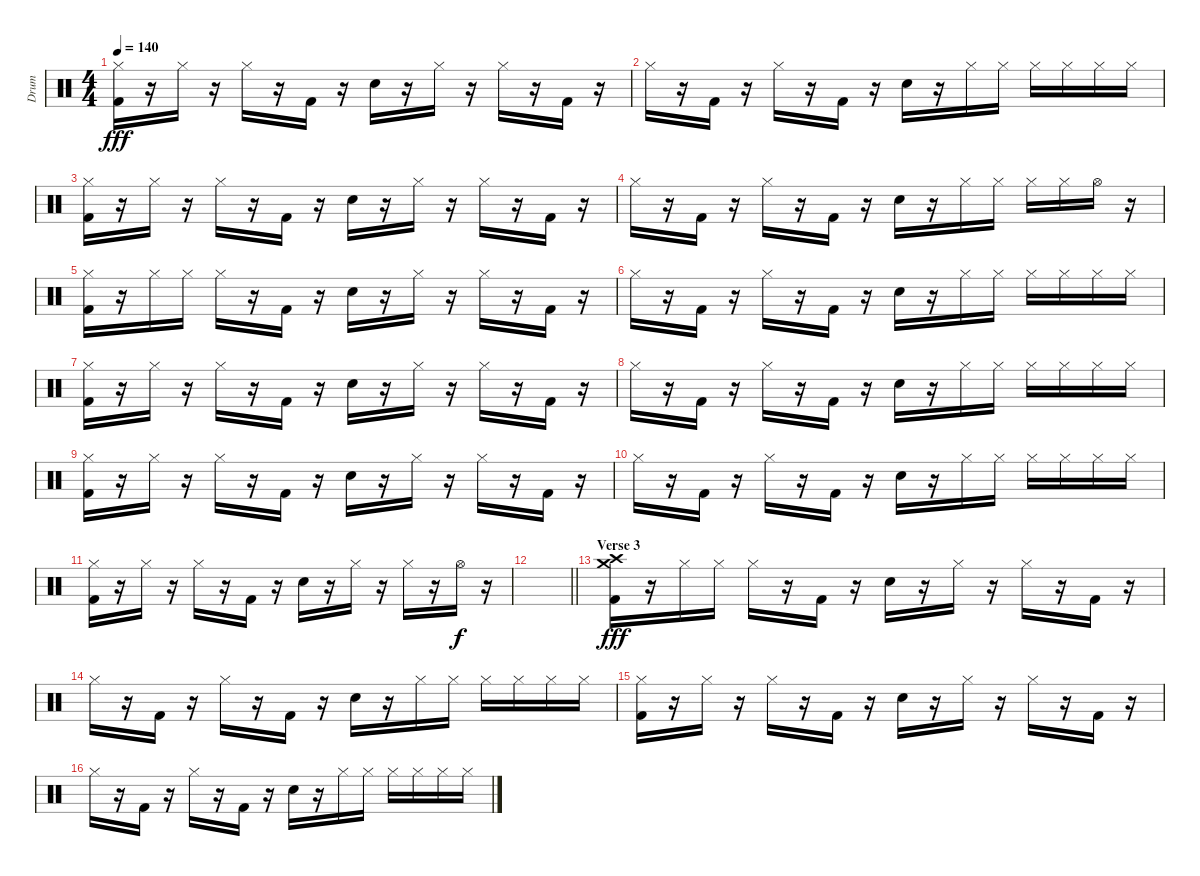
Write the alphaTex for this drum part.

\track ("Drum" "Drum") {instrument percussion}
\staff {score}
\articulation defaults
\ts (4 4)
\tempo 140
\clef neutral
\ks c
("Hi-Hat (closed)" "Kick (hit) 2").16{dy fff} r.16 "Hi-Hat (closed)".16 r.16 "Hi-Hat (closed)".16 r.16 "Kick (hit) 2".16 r.16 "Electric Snare (hit)".16 r.16 "Hi-Hat (closed)".16 r.16 "Hi-Hat (closed)".16 r.16 "Kick (hit) 2".16 r.16 |
"Hi-Hat (closed)".16 r.16 "Kick (hit) 2".16 r.16 "Hi-Hat (closed)".16 r.16 "Kick (hit) 2".16 r.16 "Electric Snare (hit)".16 r.16 "Hi-Hat (closed)".16 "Hi-Hat (closed)".16 "Hi-Hat (closed)".16 "Hi-Hat (closed)".16 "Hi-Hat (closed)".16 "Hi-Hat (closed)".16 |
("Hi-Hat (closed)" "Kick (hit) 2").16 r.16 "Hi-Hat (closed)".16 r.16 "Hi-Hat (closed)".16 r.16 "Kick (hit) 2".16 r.16 "Electric Snare (hit)".16 r.16 "Hi-Hat (closed)".16 r.16 "Hi-Hat (closed)".16 r.16 "Kick (hit) 2".16 r.16 |
"Hi-Hat (closed)".16 r.16 "Kick (hit) 2".16 r.16 "Hi-Hat (closed)".16 r.16 "Kick (hit) 2".16 r.16 "Electric Snare (hit)".16 r.16 "Hi-Hat (closed)".16 "Hi-Hat (closed)".16 "Hi-Hat (closed)".16 "Hi-Hat (closed)".16 "Hi-Hat (open)".16 r.16 |
("Hi-Hat (closed)" "Kick (hit) 2").16 r.16 "Hi-Hat (closed)".16 "Hi-Hat (closed)".16 "Hi-Hat (closed)".16 r.16 "Kick (hit) 2".16 r.16 "Electric Snare (hit)".16 r.16 "Hi-Hat (closed)".16 r.16 "Hi-Hat (closed)".16 r.16 "Kick (hit) 2".16 r.16 |
"Hi-Hat (closed)".16 r.16 "Kick (hit) 2".16 r.16 "Hi-Hat (closed)".16 r.16 "Kick (hit) 2".16 r.16 "Electric Snare (hit)".16 r.16 "Hi-Hat (closed)".16 "Hi-Hat (closed)".16 "Hi-Hat (closed)".16 "Hi-Hat (closed)".16 "Hi-Hat (closed)".16 "Hi-Hat (closed)".16 |
("Hi-Hat (closed)" "Kick (hit) 2").16 r.16 "Hi-Hat (closed)".16 r.16 "Hi-Hat (closed)".16 r.16 "Kick (hit) 2".16 r.16 "Electric Snare (hit)".16 r.16 "Hi-Hat (closed)".16 r.16 "Hi-Hat (closed)".16 r.16 "Kick (hit) 2".16 r.16 |
"Hi-Hat (closed)".16 r.16 "Kick (hit) 2".16 r.16 "Hi-Hat (closed)".16 r.16 "Kick (hit) 2".16 r.16 "Electric Snare (hit)".16 r.16 "Hi-Hat (closed)".16 "Hi-Hat (closed)".16 "Hi-Hat (closed)".16 "Hi-Hat (closed)".16 "Hi-Hat (closed)".16 "Hi-Hat (closed)".16 |
("Hi-Hat (closed)" "Kick (hit) 2").16 r.16 "Hi-Hat (closed)".16 r.16 "Hi-Hat (closed)".16 r.16 "Kick (hit) 2".16 r.16 "Electric Snare (hit)".16 r.16 "Hi-Hat (closed)".16 r.16 "Hi-Hat (closed)".16 r.16 "Kick (hit) 2".16 r.16 |
"Hi-Hat (closed)".16 r.16 "Kick (hit) 2".16 r.16 "Hi-Hat (closed)".16 r.16 "Kick (hit) 2".16 r.16 "Electric Snare (hit)".16 r.16 "Hi-Hat (closed)".16 "Hi-Hat (closed)".16 "Hi-Hat (closed)".16 "Hi-Hat (closed)".16 "Hi-Hat (closed)".16 "Hi-Hat (closed)".16 |
("Hi-Hat (closed)" "Kick (hit) 2").16 r.16 "Hi-Hat (closed)".16 r.16 "Hi-Hat (closed)".16 r.16 "Kick (hit) 2".16 r.16 "Electric Snare (hit)".16 r.16 "Hi-Hat (closed)".16 r.16 "Hi-Hat (closed)".16 r.16 "Hi-Hat (open)".16{dy f} r.16 |
\barLineRight lightlight
|
\section ("" "Verse 3")
("Crash medium (hit)" "Crash high (hit)" "Kick (hit) 2").16{dy fff} r.16 "Hi-Hat (closed)".16 "Hi-Hat (closed)".16 "Hi-Hat (closed)".16 r.16 "Kick (hit) 2".16 r.16 "Electric Snare (hit)".16 r.16 "Hi-Hat (closed)".16 r.16 "Hi-Hat (closed)".16 r.16 "Kick (hit) 2".16 r.16 |
"Hi-Hat (closed)".16 r.16 "Kick (hit) 2".16 r.16 "Hi-Hat (closed)".16 r.16 "Kick (hit) 2".16 r.16 "Electric Snare (hit)".16 r.16 "Hi-Hat (closed)".16 "Hi-Hat (closed)".16 "Hi-Hat (closed)".16 "Hi-Hat (closed)".16 "Hi-Hat (closed)".16 "Hi-Hat (closed)".16 |
("Hi-Hat (closed)" "Kick (hit) 2").16 r.16 "Hi-Hat (closed)".16 r.16 "Hi-Hat (closed)".16 r.16 "Kick (hit) 2".16 r.16 "Electric Snare (hit)".16 r.16 "Hi-Hat (closed)".16 r.16 "Hi-Hat (closed)".16 r.16 "Kick (hit) 2".16 r.16 |
"Hi-Hat (closed)".16 r.16 "Kick (hit) 2".16 r.16 "Hi-Hat (closed)".16 r.16 "Kick (hit) 2".16 r.16 "Electric Snare (hit)".16 r.16 "Hi-Hat (closed)".16 "Hi-Hat (closed)".16 "Hi-Hat (closed)".16 "Hi-Hat (closed)".16 "Hi-Hat (closed)".16 "Hi-Hat (closed)".16
